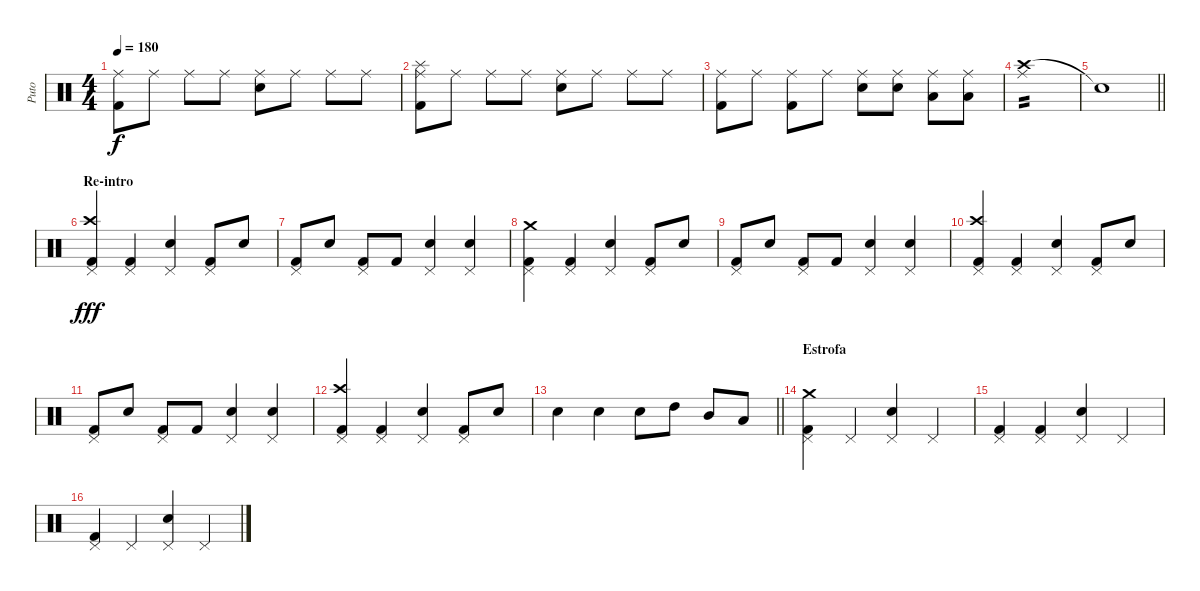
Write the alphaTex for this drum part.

\track ("Puto" "Puto") {instrument percussion}
\staff {score}
\articulation defaults
\ts (4 4)
\tempo 180
\clef neutral
\ks c
("Kick (hit) 2" "Ride (middle)").8{dy f} "Ride (middle)".8 "Ride (middle)".8 "Ride (middle)".8 ("Snare (hit) 2" "Ride (middle)").8 "Ride (middle)".8 "Ride (middle)".8 "Ride (middle)".8 |
("Kick (hit) 2" "Splash (hit)" "Ride (middle)").8 "Ride (middle)".8 "Ride (middle)".8 "Ride (middle)".8 ("Snare (hit) 2" "Ride (middle)").8 "Ride (middle)".8 "Ride (middle)".8 "Ride (middle)".8 |
("Kick (hit) 2" "Ride (middle)").8 "Ride (middle)".8 ("Kick (hit) 2" "Ride (middle)").8 "Ride (middle)".8 ("Snare (hit) 2" "Ride (middle)").8 ("Snare (hit) 2" "Ride (middle)").8 ("Low Tom (hit)" "Ride (middle)").8 ("Low Tom (hit)" "Ride (middle)").8 |
("Crash high (hit)" "Ride (middle)").1{tp 2} |
\barLineRight lightlight "Snare (hit)"{t}.1
|
\section ("" "Re-intro")
("Kick (hit) 2" "Crash high (hit)" "Pedal Hi-Hat (hit)").4{dy fff} ("Kick (hit) 2" "Pedal Hi-Hat (hit)").4 ("Snare (hit) 2" "Pedal Hi-Hat (hit)").4 ("Kick (hit) 2" "Pedal Hi-Hat (hit)").8 "Snare (hit) 2".8 |
("Kick (hit) 2" "Pedal Hi-Hat (hit)").8 "Snare (hit) 2".8 ("Kick (hit) 2" "Pedal Hi-Hat (hit)").8 "Kick (hit) 2".8 ("Snare (hit) 2" "Pedal Hi-Hat (hit)").4 ("Snare (hit) 2" "Pedal Hi-Hat (hit)").4 |
("Kick (hit) 2" "Crash medium (hit)" "Pedal Hi-Hat (hit)").4 ("Kick (hit) 2" "Pedal Hi-Hat (hit)").4 ("Snare (hit) 2" "Pedal Hi-Hat (hit)").4 ("Kick (hit) 2" "Pedal Hi-Hat (hit)").8 "Snare (hit) 2".8 |
("Kick (hit) 2" "Pedal Hi-Hat (hit)").8 "Snare (hit) 2".8 ("Kick (hit) 2" "Pedal Hi-Hat (hit)").8 "Kick (hit) 2".8 ("Snare (hit) 2" "Pedal Hi-Hat (hit)").4 ("Snare (hit) 2" "Pedal Hi-Hat (hit)").4 |
("Kick (hit) 2" "Crash high (hit)" "Pedal Hi-Hat (hit)").4 ("Kick (hit) 2" "Pedal Hi-Hat (hit)").4 ("Snare (hit) 2" "Pedal Hi-Hat (hit)").4 ("Kick (hit) 2" "Pedal Hi-Hat (hit)").8 "Snare (hit) 2".8 |
("Kick (hit) 2" "Pedal Hi-Hat (hit)").8 "Snare (hit) 2".8 ("Kick (hit) 2" "Pedal Hi-Hat (hit)").8 "Kick (hit) 2".8 ("Snare (hit) 2" "Pedal Hi-Hat (hit)").4 ("Snare (hit) 2" "Pedal Hi-Hat (hit)").4 |
("Kick (hit) 2" "Crash high (hit)" "Pedal Hi-Hat (hit)").4 ("Kick (hit) 2" "Pedal Hi-Hat (hit)").4 ("Snare (hit) 2" "Pedal Hi-Hat (hit)").4 ("Kick (hit) 2" "Pedal Hi-Hat (hit)").8 "Snare (hit) 2".8 |
\barLineRight lightlight "Snare (hit) 2".4 "Snare (hit) 2".4 "Snare (hit) 2".8 "High Tom (hit)".8 "Mid Tom (hit)".8 "Low Tom (hit)".8
|
\section ("" "Estrofa")
("Kick (hit) 2" "Crash medium (hit)" "Pedal Hi-Hat (hit)").4 "Pedal Hi-Hat (hit)".4 ("Snare (hit) 2" "Pedal Hi-Hat (hit)").4 "Pedal Hi-Hat (hit)".4 |
("Kick (hit) 2" "Pedal Hi-Hat (hit)").4 ("Kick (hit) 2" "Pedal Hi-Hat (hit)").4 ("Snare (hit) 2" "Pedal Hi-Hat (hit)").4 "Pedal Hi-Hat (hit)".4 |
("Kick (hit) 2" "Pedal Hi-Hat (hit)").4 "Pedal Hi-Hat (hit)".4 ("Snare (hit) 2" "Pedal Hi-Hat (hit)").4 "Pedal Hi-Hat (hit)".4
